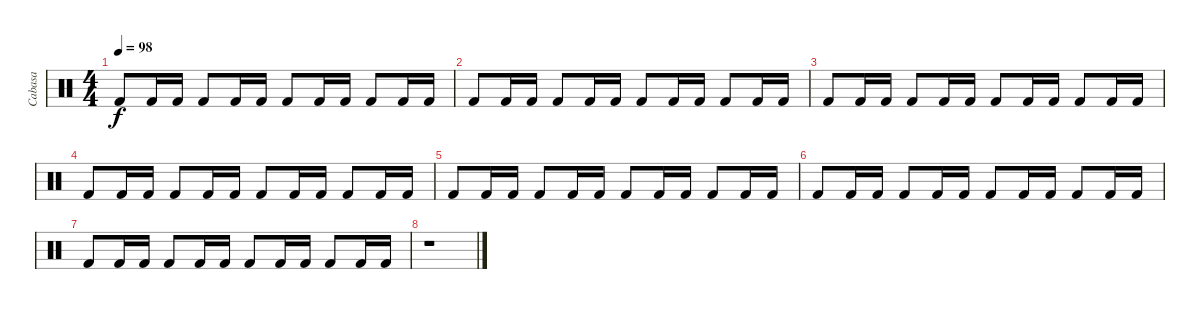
\track ("Cabasa" "Cabasa") {instrument percussion}
\staff {score}
\articulation defaults
\ts (4 4)
\tempo 98
\clef neutral
\ks c "Kick (hit) 2".8{dy f} "Kick (hit) 2".16 "Kick (hit) 2".16 "Kick (hit) 2".8 "Kick (hit) 2".16 "Kick (hit) 2".16 "Kick (hit) 2".8 "Kick (hit) 2".16 "Kick (hit) 2".16 "Kick (hit) 2".8 "Kick (hit) 2".16 "Kick (hit) 2".16
|
"Kick (hit) 2".8 "Kick (hit) 2".16 "Kick (hit) 2".16 "Kick (hit) 2".8 "Kick (hit) 2".16 "Kick (hit) 2".16 "Kick (hit) 2".8 "Kick (hit) 2".16 "Kick (hit) 2".16 "Kick (hit) 2".8 "Kick (hit) 2".16 "Kick (hit) 2".16 |
"Kick (hit) 2".8 "Kick (hit) 2".16 "Kick (hit) 2".16 "Kick (hit) 2".8 "Kick (hit) 2".16 "Kick (hit) 2".16 "Kick (hit) 2".8 "Kick (hit) 2".16 "Kick (hit) 2".16 "Kick (hit) 2".8 "Kick (hit) 2".16 "Kick (hit) 2".16 |
"Kick (hit) 2".8 "Kick (hit) 2".16 "Kick (hit) 2".16 "Kick (hit) 2".8 "Kick (hit) 2".16 "Kick (hit) 2".16 "Kick (hit) 2".8 "Kick (hit) 2".16 "Kick (hit) 2".16 "Kick (hit) 2".8 "Kick (hit) 2".16 "Kick (hit) 2".16 |
"Kick (hit) 2".8 "Kick (hit) 2".16 "Kick (hit) 2".16 "Kick (hit) 2".8 "Kick (hit) 2".16 "Kick (hit) 2".16 "Kick (hit) 2".8 "Kick (hit) 2".16 "Kick (hit) 2".16 "Kick (hit) 2".8 "Kick (hit) 2".16 "Kick (hit) 2".16 |
"Kick (hit) 2".8 "Kick (hit) 2".16 "Kick (hit) 2".16 "Kick (hit) 2".8 "Kick (hit) 2".16 "Kick (hit) 2".16 "Kick (hit) 2".8 "Kick (hit) 2".16 "Kick (hit) 2".16 "Kick (hit) 2".8 "Kick (hit) 2".16 "Kick (hit) 2".16 |
"Kick (hit) 2".8 "Kick (hit) 2".16 "Kick (hit) 2".16 "Kick (hit) 2".8 "Kick (hit) 2".16 "Kick (hit) 2".16 "Kick (hit) 2".8 "Kick (hit) 2".16 "Kick (hit) 2".16 "Kick (hit) 2".8 "Kick (hit) 2".16 "Kick (hit) 2".16 |
r.1
